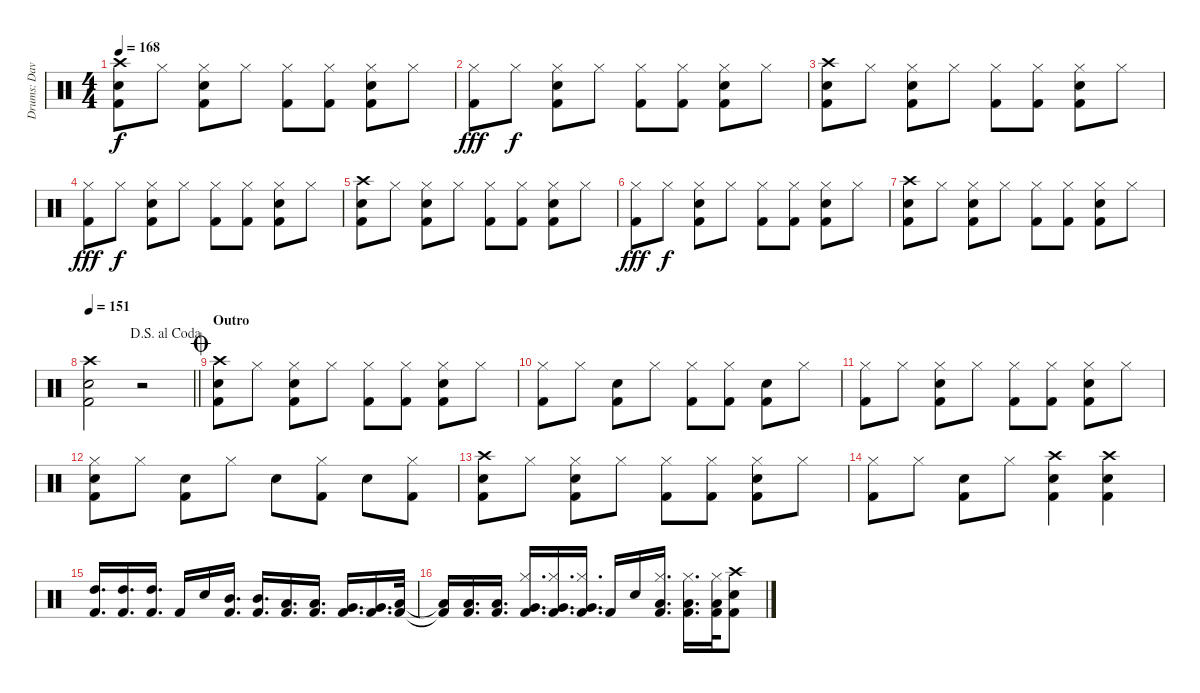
\track ("Drums: Dave" "Drums: Dav") {instrument percussion}
\staff {score}
\articulation defaults
\ts (4 4)
\tempo 168
\clef neutral
\ks c
("Crash high (hit)" "Snare (hit) 2" "Kick (hit) 2").8{dy f} "Hi-Hat (closed)".8 ("Hi-Hat (closed)" "Snare (hit) 2" "Kick (hit) 2").8 "Hi-Hat (closed)".8 ("Hi-Hat (closed)" "Kick (hit) 2").8 ("Hi-Hat (closed)" "Kick (hit) 2").8 ("Hi-Hat (closed)" "Snare (hit) 2" "Kick (hit) 2").8 "Hi-Hat (closed)".8 |
("Hi-Hat (closed)" "Kick (hit) 2").8{dy fff} "Hi-Hat (closed)".8{dy f} ("Hi-Hat (closed)" "Snare (hit) 2" "Kick (hit) 2").8 "Hi-Hat (closed)".8 ("Hi-Hat (closed)" "Kick (hit) 2").8 ("Hi-Hat (closed)" "Kick (hit) 2").8 ("Hi-Hat (closed)" "Snare (hit) 2" "Kick (hit) 2").8 "Hi-Hat (closed)".8 |
("Crash high (hit)" "Snare (hit) 2" "Kick (hit) 2").8 "Hi-Hat (closed)".8 ("Hi-Hat (closed)" "Snare (hit) 2" "Kick (hit) 2").8 "Hi-Hat (closed)".8 ("Hi-Hat (closed)" "Kick (hit) 2").8 ("Hi-Hat (closed)" "Kick (hit) 2").8 ("Hi-Hat (closed)" "Snare (hit) 2" "Kick (hit) 2").8 "Hi-Hat (closed)".8 |
("Hi-Hat (closed)" "Kick (hit) 2").8{dy fff} "Hi-Hat (closed)".8{dy f} ("Hi-Hat (closed)" "Snare (hit) 2" "Kick (hit) 2").8 "Hi-Hat (closed)".8 ("Hi-Hat (closed)" "Kick (hit) 2").8 ("Hi-Hat (closed)" "Kick (hit) 2").8 ("Hi-Hat (closed)" "Snare (hit) 2" "Kick (hit) 2").8 "Hi-Hat (closed)".8 |
("Crash high (hit)" "Snare (hit) 2" "Kick (hit) 2").8 "Hi-Hat (closed)".8 ("Hi-Hat (closed)" "Snare (hit) 2" "Kick (hit) 2").8 "Hi-Hat (closed)".8 ("Hi-Hat (closed)" "Kick (hit) 2").8 ("Hi-Hat (closed)" "Kick (hit) 2").8 ("Hi-Hat (closed)" "Snare (hit) 2" "Kick (hit) 2").8 "Hi-Hat (closed)".8 |
("Hi-Hat (closed)" "Kick (hit) 2").8{dy fff} "Hi-Hat (closed)".8{dy f} ("Hi-Hat (closed)" "Snare (hit) 2" "Kick (hit) 2").8 "Hi-Hat (closed)".8 ("Hi-Hat (closed)" "Kick (hit) 2").8 ("Hi-Hat (closed)" "Kick (hit) 2").8 ("Hi-Hat (closed)" "Snare (hit) 2" "Kick (hit) 2").8 "Hi-Hat (closed)".8 |
("Crash high (hit)" "Snare (hit) 2" "Kick (hit) 2").8 "Hi-Hat (closed)".8 ("Hi-Hat (closed)" "Snare (hit) 2" "Kick (hit) 2").8 "Hi-Hat (closed)".8 ("Hi-Hat (closed)" "Kick (hit) 2").8 ("Hi-Hat (closed)" "Kick (hit) 2").8 ("Hi-Hat (closed)" "Snare (hit) 2" "Kick (hit) 2").8 "Hi-Hat (closed)".8 |
\jump dalsegnoalcoda
\tempo 151
\barLineRight lightlight
("Crash high (hit)" "Snare (hit) 2" "Kick (hit) 2").2 r.2 |
\section ("" "Outro")
\jump coda
("Crash high (hit)" "Snare (hit) 2" "Kick (hit) 2").8 "Hi-Hat (closed)".8 ("Hi-Hat (closed)" "Snare (hit) 2" "Kick (hit) 2").8 "Hi-Hat (closed)".8 ("Hi-Hat (closed)" "Kick (hit) 2").8 ("Hi-Hat (closed)" "Kick (hit) 2").8 ("Hi-Hat (closed)" "Snare (hit) 2" "Kick (hit) 2").8 "Hi-Hat (closed)".8 |
("Hi-Hat (closed)" "Kick (hit) 2").8 "Hi-Hat (closed)".8 ("Snare (hit) 2" "Kick (hit) 2").8 "Hi-Hat (closed)".8 ("Hi-Hat (closed)" "Kick (hit) 2").8 ("Hi-Hat (closed)" "Kick (hit) 2").8 ("Snare (hit) 2" "Kick (hit) 2").8 "Hi-Hat (closed)".8 |
("Hi-Hat (closed)" "Kick (hit) 2").8 "Hi-Hat (closed)".8 ("Hi-Hat (closed)" "Snare (hit) 2" "Kick (hit) 2").8 "Hi-Hat (closed)".8 ("Hi-Hat (closed)" "Kick (hit) 2").8 ("Hi-Hat (closed)" "Kick (hit) 2").8 ("Hi-Hat (closed)" "Snare (hit) 2" "Kick (hit) 2").8 "Hi-Hat (closed)".8 |
("Hi-Hat (closed)" "Snare (hit) 2" "Kick (hit) 2").8 "Hi-Hat (closed)".8 ("Snare (hit) 2" "Kick (hit) 2").8 "Hi-Hat (closed)".8 "Snare (hit) 2".8 ("Hi-Hat (closed)" "Kick (hit) 2").8 "Snare (hit) 2".8 ("Hi-Hat (closed)" "Kick (hit) 2").8 |
("Crash high (hit)" "Snare (hit) 2" "Kick (hit) 2").8 "Hi-Hat (closed)".8 ("Hi-Hat (closed)" "Snare (hit) 2" "Kick (hit) 2").8 "Hi-Hat (closed)".8 ("Hi-Hat (closed)" "Kick (hit) 2").8 ("Hi-Hat (closed)" "Kick (hit) 2").8 ("Hi-Hat (closed)" "Snare (hit) 2" "Kick (hit) 2").8 "Hi-Hat (closed)".8 |
("Hi-Hat (closed)" "Kick (hit) 2").8 "Hi-Hat (closed)".8 ("Snare (hit) 2" "Kick (hit) 2").8 "Hi-Hat (closed)".8 ("Crash high (hit)" "Snare (hit) 2" "Kick (hit) 2").4 ("Crash high (hit)" "Snare (hit) 2" "Kick (hit) 2").4 |
("High Tom (hit)" "Kick (hit) 2").16{d} ("High Tom (hit)" "Kick (hit) 2").16{d} ("High Tom (hit)" "Kick (hit) 2").16{d} "Kick (hit) 2".16 "Snare (hit) 2".16 ("Mid Tom (hit)" "Kick (hit) 2").16{d} ("Mid Tom (hit)" "Kick (hit) 2").16{d} ("Low Tom (hit)" "Kick (hit) 2").16{d} ("Low Tom (hit)" "Kick (hit) 2").16{d} ("Very Low Tom (hit)" "Kick (hit) 2").16{d} ("Very Low Tom (hit)" "Kick (hit) 2").16{d} ("Low Floor Tom (hit)" "Kick (hit) 2").32 |
("Low Floor Tom (hit)"{t} "Kick (hit) 2"{t}).16 ("Low Tom (hit)" "Kick (hit) 2").16{d} ("Low Tom (hit)" "Kick (hit) 2").16{d} ("Hi-Hat (closed)" "Very Low Tom (hit)" "Kick (hit) 2").16{d} ("Hi-Hat (closed)" "Very Low Tom (hit)" "Kick (hit) 2").16{d} ("Hi-Hat (closed)" "Very Low Tom (hit)" "Kick (hit) 2").16{d} "Kick (hit) 2".16 "Snare (hit) 2".16 ("Hi-Hat (closed)" "Low Floor Tom (hit)" "Kick (hit) 2").16{d} ("Hi-Hat (closed)" "Low Floor Tom (hit)" "Kick (hit) 2").16{d} ("Hi-Hat (closed)" "Low Floor Tom (hit)" "Kick (hit) 2").32 ("Crash high (hit)" "Snare (hit) 2" "Kick (hit) 2").8
